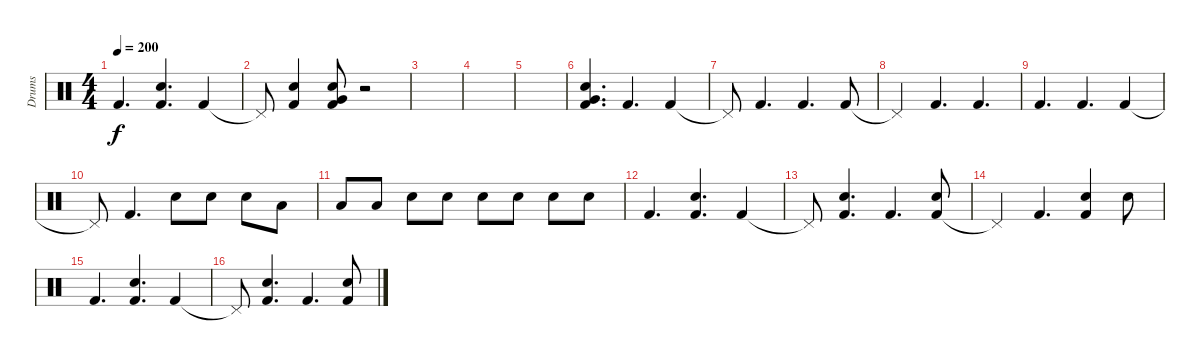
\track ("Drums" "Drums") {instrument percussion}
\staff {score}
\articulation defaults
\ts (4 4)
\tempo 200
\clef neutral
\ks c "Kick (hit) 2".4{d dy f}
("Kick (hit) 2" "Snare (hit) 2").4{d} "Kick (hit) 2".4 |
"Pedal Hi-Hat (hit)"{t}.8 ("Snare (hit) 2" "Kick (hit) 2").4 ("Snare (hit) 2" "Very Low Tom (hit)" "Kick (hit) 2").8 r.2 |
|
|
|
("Kick (hit) 2" "Very Low Tom (hit)" "Snare (hit) 2").4{d} "Kick (hit) 2".4{d} "Kick (hit) 2".4 |
"Pedal Hi-Hat (hit)"{t}.8 "Kick (hit) 2".4{d} "Kick (hit) 2".4{d} "Kick (hit) 2".8 |
"Pedal Hi-Hat (hit)"{t}.4 "Kick (hit) 2".4{d} "Kick (hit) 2".4{d} |
"Kick (hit) 2".4{d} "Kick (hit) 2".4{d} "Kick (hit) 2".4 |
"Pedal Hi-Hat (hit)"{t}.8 "Kick (hit) 2".4{d} "Snare (hit) 2".8 "Snare (hit) 2".8 "Snare (hit) 2".8 "Low Tom (hit)".8 |
"Low Tom (hit)".8 "Low Tom (hit)".8 "Snare (hit) 2".8 "Snare (hit) 2".8 "Snare (hit) 2".8 "Snare (hit) 2".8 "Snare (hit) 2".8 "Snare (hit) 2".8 |
"Kick (hit) 2".4{d} ("Kick (hit) 2" "Snare (hit) 2").4{d} "Kick (hit) 2".4 |
"Pedal Hi-Hat (hit)"{t}.8 ("Kick (hit) 2" "Snare (hit) 2").4{d} "Kick (hit) 2".4{d} ("Kick (hit) 2" "Snare (hit) 2").8 |
"Pedal Hi-Hat (hit)"{t}.4 "Kick (hit) 2".4{d} ("Kick (hit) 2" "Snare (hit) 2").4 "Snare (hit) 2".8 |
"Kick (hit) 2".4{d} ("Kick (hit) 2" "Snare (hit) 2").4{d} "Kick (hit) 2".4 |
"Pedal Hi-Hat (hit)"{t}.8 ("Kick (hit) 2" "Snare (hit) 2").4{d} "Kick (hit) 2".4{d} ("Kick (hit) 2" "Snare (hit) 2").8
